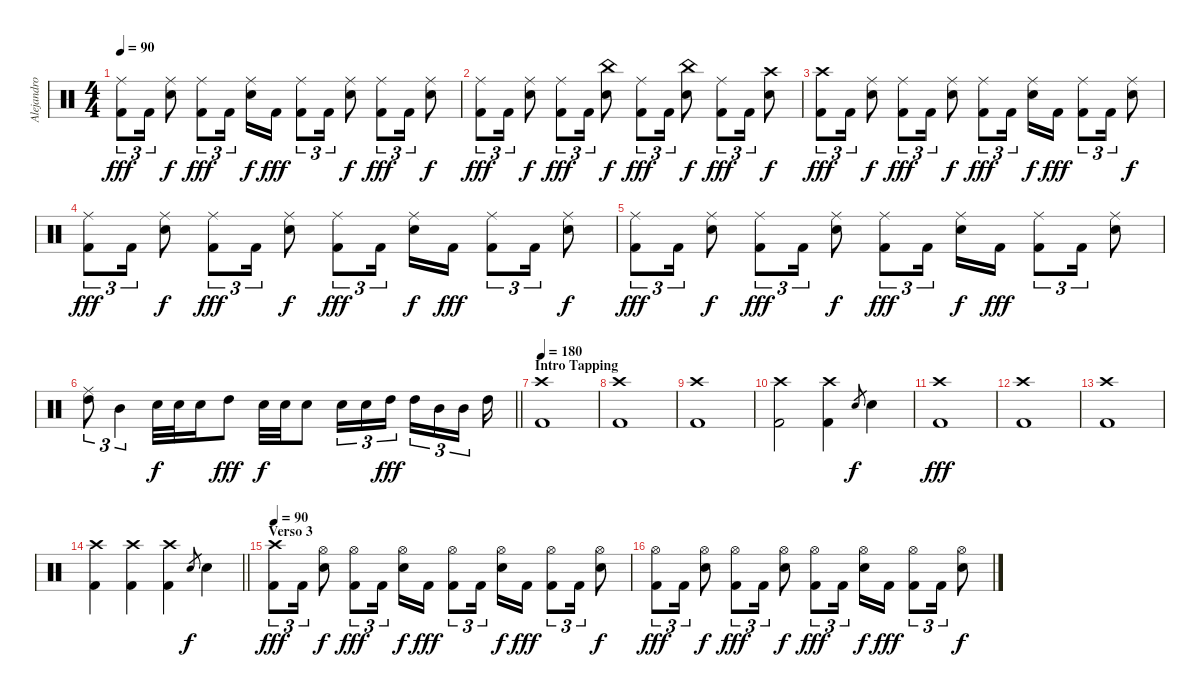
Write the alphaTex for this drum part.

\track ("Alejandro Gutiérrez" "Alejandro ") {instrument percussion}
\staff {score}
\articulation defaults
\ts (4 4)
\tempo 90
\clef neutral
\ks c
("Ride (middle)" "Kick (hit) 2").8{tu (3 2) dy fff} "Kick (hit) 2".16{tu (3 2)} ("Ride (middle)" "Electric Snare (hit)").8{dy f} ("Ride (middle)" "Kick (hit) 2").8{tu (3 2) dy fff} "Kick (hit) 2".16{tu (3 2) beam splitsecondary} ("Ride (middle)" "Electric Snare (hit)").16{dy f} "Kick (hit) 2".16{dy fff} ("Ride (middle)" "Kick (hit) 2").8{tu (3 2)} "Kick (hit) 2".16{tu (3 2)} ("Ride (middle)" "Electric Snare (hit)").8{dy f} ("Ride (middle)" "Kick (hit) 2").8{tu (3 2) dy fff} "Kick (hit) 2".16{tu (3 2)} ("Ride (middle)" "Electric Snare (hit)").8{dy f} |
("Ride (middle)" "Kick (hit) 2").8{tu (3 2) dy fff} "Kick (hit) 2".16{tu (3 2)} ("Ride (middle)" "Electric Snare (hit)").8{dy f} ("Ride (middle)" "Kick (hit) 2").8{tu (3 2) dy fff} "Kick (hit) 2".16{tu (3 2)} ("China (hit)" "Electric Snare (hit)").8{dy f} ("Ride (middle)" "Kick (hit) 2").8{tu (3 2) dy fff} "Kick (hit) 2".16{tu (3 2)} ("China (hit)" "Electric Snare (hit)").8{dy f} ("Ride (middle)" "Kick (hit) 2").8{tu (3 2) dy fff} "Kick (hit) 2".16{tu (3 2)} ("Crash high (hit)" "Electric Snare (hit)").8{dy f} |
("Crash high (hit)" "Kick (hit) 2").8{tu (3 2) dy fff} "Kick (hit) 2".16{tu (3 2)} ("Ride (middle)" "Electric Snare (hit)").8{dy f} ("Ride (middle)" "Kick (hit) 2").8{tu (3 2) dy fff} "Kick (hit) 2".16{tu (3 2)} ("Ride (middle)" "Electric Snare (hit)").8{dy f} ("Ride (middle)" "Kick (hit) 2").8{tu (3 2) dy fff} "Kick (hit) 2".16{tu (3 2) beam splitsecondary} ("Ride (middle)" "Electric Snare (hit)").16{dy f} "Kick (hit) 2".16{dy fff} ("Ride (middle)" "Kick (hit) 2").8{tu (3 2)} "Kick (hit) 2".16{tu (3 2)} ("Ride (middle)" "Electric Snare (hit)").8{dy f} |
("Ride (middle)" "Kick (hit) 2").8{tu (3 2) dy fff} "Kick (hit) 2".16{tu (3 2)} ("Ride (middle)" "Electric Snare (hit)").8{dy f} ("Ride (middle)" "Kick (hit) 2").8{tu (3 2) dy fff} "Kick (hit) 2".16{tu (3 2)} ("Ride (middle)" "Electric Snare (hit)").8{dy f} ("Ride (middle)" "Kick (hit) 2").8{tu (3 2) dy fff} "Kick (hit) 2".16{tu (3 2) beam splitsecondary} ("Ride (middle)" "Electric Snare (hit)").16{dy f} "Kick (hit) 2".16{dy fff} ("Ride (middle)" "Kick (hit) 2").8{tu (3 2)} "Kick (hit) 2".16{tu (3 2)} ("Ride (middle)" "Electric Snare (hit)").8{dy f} |
("Ride (middle)" "Kick (hit) 2").8{tu (3 2) dy fff} "Kick (hit) 2".16{tu (3 2)} ("Ride (middle)" "Electric Snare (hit)").8{dy f} ("Ride (middle)" "Kick (hit) 2").8{tu (3 2) dy fff} "Kick (hit) 2".16{tu (3 2)} ("Ride (middle)" "Electric Snare (hit)").8{dy f} ("Ride (middle)" "Kick (hit) 2").8{tu (3 2) dy fff} "Kick (hit) 2".16{tu (3 2) beam splitsecondary} ("Ride (middle)" "Electric Snare (hit)").16{dy f} "Kick (hit) 2".16{dy fff} ("Ride (middle)" "Kick (hit) 2").8{tu (3 2)} "Kick (hit) 2".16{tu (3 2)} ("Ride (middle)" "Electric Snare (hit)").8 |
\barLineRight lightlight
("Ride (middle)" "High Tom (hit)").8{tu (3 2)} "Mid Tom (hit)".4{tu (3 2)} "Electric Snare (hit)".32{dy f} "Electric Snare (hit)".32 "Electric Snare (hit)".16 "High Tom (hit)".8{dy fff} "Electric Snare (hit)".32{dy f} "Electric Snare (hit)".32 "Electric Snare (hit)".8 "Electric Snare (hit)".16{tu (3 2)} "Electric Snare (hit)".16{tu (3 2)} "High Tom (hit)".16{tu (3 2) dy fff beam splitsecondary} "High Tom (hit)".16{tu (3 2)} "Mid Tom (hit)".16{tu (3 2)} "Mid Tom (hit)".16{tu (3 2) beam splitsecondary} "High Tom (hit)".16 |
\section ("" "Intro Tapping")
\tempo 180
("Crash high (hit)" "Kick (hit) 2").1 |
("Crash high (hit)" "Kick (hit) 2").1 |
("Crash high (hit)" "Kick (hit) 2").1 |
("Crash high (hit)" "Kick (hit) 2").2 ("Crash high (hit)" "Kick (hit) 2").4 "Electric Snare (hit)".8{gr dy f} "Electric Snare (hit)".4 |
("Crash high (hit)" "Kick (hit) 2").1{dy fff} |
("Crash high (hit)" "Kick (hit) 2").1 |
("Crash high (hit)" "Kick (hit) 2").1 |
\barLineRight lightlight
("Crash high (hit)" "Kick (hit) 2").4 ("Crash high (hit)" "Kick (hit) 2").4 ("Crash high (hit)" "Kick (hit) 2").4 "Electric Snare (hit)".8{gr dy f} "Electric Snare (hit)".4 |
\section ("" "Verso 3")
\tempo 90
("Crash high (hit)" "Kick (hit) 2").8{tu (3 2) dy fff} "Kick (hit) 2".16{tu (3 2)} ("Hi-Hat (open)" "Electric Snare (hit)").8{dy f} ("Hi-Hat (open)" "Kick (hit) 2").8{tu (3 2) dy fff} "Kick (hit) 2".16{tu (3 2) beam splitsecondary} ("Hi-Hat (open)" "Electric Snare (hit)").16{dy f} "Kick (hit) 2".16{dy fff} ("Hi-Hat (open)" "Kick (hit) 2").8{tu (3 2)} "Kick (hit) 2".16{tu (3 2) beam splitsecondary} ("Hi-Hat (open)" "Electric Snare (hit)").16{dy f} "Kick (hit) 2".16{dy fff} ("Hi-Hat (open)" "Kick (hit) 2").8{tu (3 2)} "Kick (hit) 2".16{tu (3 2)} ("Hi-Hat (open)" "Electric Snare (hit)").8{dy f} |
("Hi-Hat (open)" "Kick (hit) 2").8{tu (3 2) dy fff} "Kick (hit) 2".16{tu (3 2)} ("Hi-Hat (open)" "Electric Snare (hit)").8{dy f} ("Hi-Hat (open)" "Kick (hit) 2").8{tu (3 2) dy fff} "Kick (hit) 2".16{tu (3 2)} ("Hi-Hat (open)" "Electric Snare (hit)").8{dy f} ("Hi-Hat (open)" "Kick (hit) 2").8{tu (3 2) dy fff} "Kick (hit) 2".16{tu (3 2) beam splitsecondary} ("Hi-Hat (open)" "Electric Snare (hit)").16{dy f} "Kick (hit) 2".16{dy fff} ("Hi-Hat (open)" "Kick (hit) 2").8{tu (3 2)} "Kick (hit) 2".16{tu (3 2)} ("Hi-Hat (open)" "Electric Snare (hit)").8{dy f}
